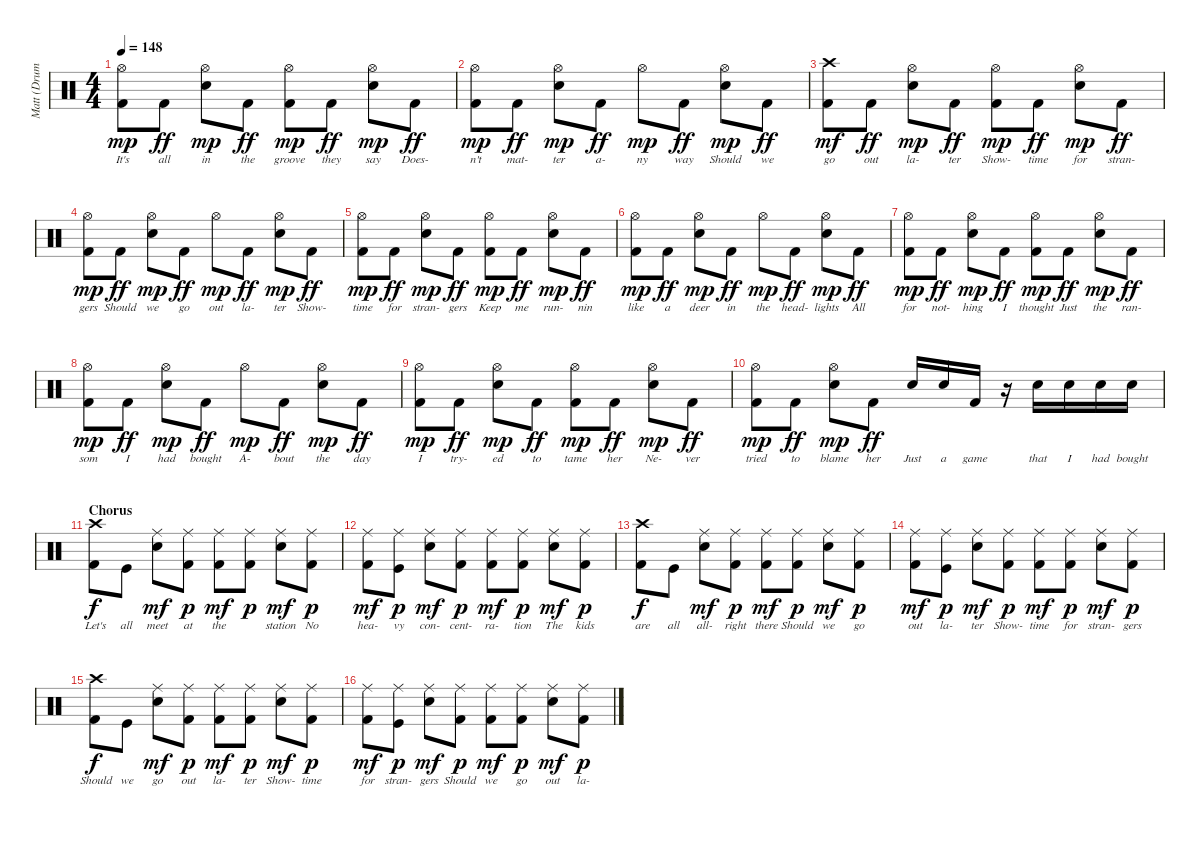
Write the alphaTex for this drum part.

\track ("Matt (Drums)" "Matt (Drum") {instrument percussion}
\staff {score}
\articulation defaults
\ts (4 4)
\tempo 148
\clef neutral
\ks c
("Kick (hit) 2" "Hi-Hat (open)").8{lyrics (0 "It's") lyrics (1 "") lyrics (2 "") lyrics (3 "") lyrics (4 "") dy mp} "Kick (hit) 2".8{lyrics (0 "all") lyrics (1 "") lyrics (2 "") lyrics (3 "") lyrics (4 "") dy ff} ("Electric Snare (hit)" "Hi-Hat (open)").8{lyrics (0 "in") lyrics (1 "") lyrics (2 "") lyrics (3 "") lyrics (4 "") dy mp} "Kick (hit) 2".8{lyrics (0 "the") lyrics (1 "") lyrics (2 "") lyrics (3 "") lyrics (4 "") dy ff} ("Kick (hit) 2" "Hi-Hat (open)").8{lyrics (0 "groove") lyrics (1 "") lyrics (2 "") lyrics (3 "") lyrics (4 "") dy mp} "Kick (hit) 2".8{lyrics (0 "they") lyrics (1 "") lyrics (2 "") lyrics (3 "") lyrics (4 "") dy ff} ("Electric Snare (hit)" "Hi-Hat (open)").8{lyrics (0 "say") lyrics (1 "") lyrics (2 "") lyrics (3 "") lyrics (4 "") dy mp} "Kick (hit) 2".8{lyrics (0 "Does-") lyrics (1 "") lyrics (2 "") lyrics (3 "") lyrics (4 "") dy ff} |
("Kick (hit) 2" "Hi-Hat (open)").8{lyrics (0 "n't") lyrics (1 "") lyrics (2 "") lyrics (3 "") lyrics (4 "") dy mp} "Kick (hit) 2".8{lyrics (0 "mat-") lyrics (1 "") lyrics (2 "") lyrics (3 "") lyrics (4 "") dy ff} ("Electric Snare (hit)" "Hi-Hat (open)").8{lyrics (0 "ter") lyrics (1 "") lyrics (2 "") lyrics (3 "") lyrics (4 "") dy mp} "Kick (hit) 2".8{lyrics (0 "a-") lyrics (1 "") lyrics (2 "") lyrics (3 "") lyrics (4 "") dy ff} "Hi-Hat (open)".8{lyrics (0 "ny") lyrics (1 "") lyrics (2 "") lyrics (3 "") lyrics (4 "") dy mp} "Kick (hit) 2".8{lyrics (0 "way") lyrics (1 "") lyrics (2 "") lyrics (3 "") lyrics (4 "") dy ff} ("Electric Snare (hit)" "Hi-Hat (open)").8{lyrics (0 "Should") lyrics (1 "") lyrics (2 "") lyrics (3 "") lyrics (4 "") dy mp} "Kick (hit) 2".8{lyrics (0 "we") lyrics (1 "") lyrics (2 "") lyrics (3 "") lyrics (4 "") dy ff} |
("Kick (hit) 2" "Crash high (hit)").8{lyrics (0 "go") lyrics (1 "") lyrics (2 "") lyrics (3 "") lyrics (4 "") dy mf} "Kick (hit) 2".8{lyrics (0 "out") lyrics (1 "") lyrics (2 "") lyrics (3 "") lyrics (4 "") dy ff} ("Electric Snare (hit)" "Hi-Hat (open)").8{lyrics (0 "la-") lyrics (1 "") lyrics (2 "") lyrics (3 "") lyrics (4 "") dy mp} "Kick (hit) 2".8{lyrics (0 "ter") lyrics (1 "") lyrics (2 "") lyrics (3 "") lyrics (4 "") dy ff} ("Kick (hit) 2" "Hi-Hat (open)").8{lyrics (0 "Show-") lyrics (1 "") lyrics (2 "") lyrics (3 "") lyrics (4 "") dy mp} "Kick (hit) 2".8{lyrics (0 "time") lyrics (1 "") lyrics (2 "") lyrics (3 "") lyrics (4 "") dy ff} ("Electric Snare (hit)" "Hi-Hat (open)").8{lyrics (0 "for") lyrics (1 "") lyrics (2 "") lyrics (3 "") lyrics (4 "") dy mp} "Kick (hit) 2".8{lyrics (0 "stran-") lyrics (1 "") lyrics (2 "") lyrics (3 "") lyrics (4 "") dy ff} |
("Kick (hit) 2" "Hi-Hat (open)").8{lyrics (0 "gers") lyrics (1 "") lyrics (2 "") lyrics (3 "") lyrics (4 "") dy mp} "Kick (hit) 2".8{lyrics (0 "Should") lyrics (1 "") lyrics (2 "") lyrics (3 "") lyrics (4 "") dy ff} ("Electric Snare (hit)" "Hi-Hat (open)").8{lyrics (0 "we") lyrics (1 "") lyrics (2 "") lyrics (3 "") lyrics (4 "") dy mp} "Kick (hit) 2".8{lyrics (0 "go") lyrics (1 "") lyrics (2 "") lyrics (3 "") lyrics (4 "") dy ff} "Hi-Hat (open)".8{lyrics (0 "out") lyrics (1 "") lyrics (2 "") lyrics (3 "") lyrics (4 "") dy mp} "Kick (hit) 2".8{lyrics (0 "la-") lyrics (1 "") lyrics (2 "") lyrics (3 "") lyrics (4 "") dy ff} ("Electric Snare (hit)" "Hi-Hat (open)").8{lyrics (0 "ter") lyrics (1 "") lyrics (2 "") lyrics (3 "") lyrics (4 "") dy mp} "Kick (hit) 2".8{lyrics (0 "Show-") lyrics (1 "") lyrics (2 "") lyrics (3 "") lyrics (4 "") dy ff} |
("Kick (hit) 2" "Hi-Hat (open)").8{lyrics (0 "time") lyrics (1 "") lyrics (2 "") lyrics (3 "") lyrics (4 "") dy mp} "Kick (hit) 2".8{lyrics (0 "for") lyrics (1 "") lyrics (2 "") lyrics (3 "") lyrics (4 "") dy ff} ("Electric Snare (hit)" "Hi-Hat (open)").8{lyrics (0 "stran-") lyrics (1 "") lyrics (2 "") lyrics (3 "") lyrics (4 "") dy mp} "Kick (hit) 2".8{lyrics (0 "gers") lyrics (1 "") lyrics (2 "") lyrics (3 "") lyrics (4 "") dy ff} ("Kick (hit) 2" "Hi-Hat (open)").8{lyrics (0 "Keep") lyrics (1 "") lyrics (2 "") lyrics (3 "") lyrics (4 "") dy mp} "Kick (hit) 2".8{lyrics (0 "me") lyrics (1 "") lyrics (2 "") lyrics (3 "") lyrics (4 "") dy ff} ("Electric Snare (hit)" "Hi-Hat (open)").8{lyrics (0 "run-") lyrics (1 "") lyrics (2 "") lyrics (3 "") lyrics (4 "") dy mp} "Kick (hit) 2".8{lyrics (0 "nin") lyrics (1 "") lyrics (2 "") lyrics (3 "") lyrics (4 "") dy ff} |
("Kick (hit) 2" "Hi-Hat (open)").8{lyrics (0 "like") lyrics (1 "") lyrics (2 "") lyrics (3 "") lyrics (4 "") dy mp} "Kick (hit) 2".8{lyrics (0 "a") lyrics (1 "") lyrics (2 "") lyrics (3 "") lyrics (4 "") dy ff} ("Electric Snare (hit)" "Hi-Hat (open)").8{lyrics (0 "deer") lyrics (1 "") lyrics (2 "") lyrics (3 "") lyrics (4 "") dy mp} "Kick (hit) 2".8{lyrics (0 "in") lyrics (1 "") lyrics (2 "") lyrics (3 "") lyrics (4 "") dy ff} "Hi-Hat (open)".8{lyrics (0 "the") lyrics (1 "") lyrics (2 "") lyrics (3 "") lyrics (4 "") dy mp} "Kick (hit) 2".8{lyrics (0 "head-") lyrics (1 "") lyrics (2 "") lyrics (3 "") lyrics (4 "") dy ff} ("Electric Snare (hit)" "Hi-Hat (open)").8{lyrics (0 "lights") lyrics (1 "") lyrics (2 "") lyrics (3 "") lyrics (4 "") dy mp} "Kick (hit) 2".8{lyrics (0 "All") lyrics (1 "") lyrics (2 "") lyrics (3 "") lyrics (4 "") dy ff} |
("Kick (hit) 2" "Hi-Hat (open)").8{lyrics (0 "for") lyrics (1 "") lyrics (2 "") lyrics (3 "") lyrics (4 "") dy mp} "Kick (hit) 2".8{lyrics (0 "not-") lyrics (1 "") lyrics (2 "") lyrics (3 "") lyrics (4 "") dy ff} ("Electric Snare (hit)" "Hi-Hat (open)").8{lyrics (0 "hing") lyrics (1 "") lyrics (2 "") lyrics (3 "") lyrics (4 "") dy mp} "Kick (hit) 2".8{lyrics (0 "I") lyrics (1 "") lyrics (2 "") lyrics (3 "") lyrics (4 "") dy ff} ("Kick (hit) 2" "Hi-Hat (open)").8{lyrics (0 "thought") lyrics (1 "") lyrics (2 "") lyrics (3 "") lyrics (4 "") dy mp} "Kick (hit) 2".8{lyrics (0 "Just") lyrics (1 "") lyrics (2 "") lyrics (3 "") lyrics (4 "") dy ff} ("Electric Snare (hit)" "Hi-Hat (open)").8{lyrics (0 "the") lyrics (1 "") lyrics (2 "") lyrics (3 "") lyrics (4 "") dy mp} "Kick (hit) 2".8{lyrics (0 "ran-") lyrics (1 "") lyrics (2 "") lyrics (3 "") lyrics (4 "") dy ff} |
("Kick (hit) 2" "Hi-Hat (open)").8{lyrics (0 "som") lyrics (1 "") lyrics (2 "") lyrics (3 "") lyrics (4 "") dy mp} "Kick (hit) 2".8{lyrics (0 "I") lyrics (1 "") lyrics (2 "") lyrics (3 "") lyrics (4 "") dy ff} ("Electric Snare (hit)" "Hi-Hat (open)").8{lyrics (0 "had") lyrics (1 "") lyrics (2 "") lyrics (3 "") lyrics (4 "") dy mp} "Kick (hit) 2".8{lyrics (0 "bought") lyrics (1 "") lyrics (2 "") lyrics (3 "") lyrics (4 "") dy ff} "Hi-Hat (open)".8{lyrics (0 "A-") lyrics (1 "") lyrics (2 "") lyrics (3 "") lyrics (4 "") dy mp} "Kick (hit) 2".8{lyrics (0 "bout") lyrics (1 "") lyrics (2 "") lyrics (3 "") lyrics (4 "") dy ff} ("Electric Snare (hit)" "Hi-Hat (open)").8{lyrics (0 "the") lyrics (1 "") lyrics (2 "") lyrics (3 "") lyrics (4 "") dy mp} "Kick (hit) 2".8{lyrics (0 "day") lyrics (1 "") lyrics (2 "") lyrics (3 "") lyrics (4 "") dy ff} |
("Kick (hit) 2" "Hi-Hat (open)").8{lyrics (0 "I") lyrics (1 "") lyrics (2 "") lyrics (3 "") lyrics (4 "") dy mp} "Kick (hit) 2".8{lyrics (0 "try-") lyrics (1 "") lyrics (2 "") lyrics (3 "") lyrics (4 "") dy ff} ("Electric Snare (hit)" "Hi-Hat (open)").8{lyrics (0 "ed") lyrics (1 "") lyrics (2 "") lyrics (3 "") lyrics (4 "") dy mp} "Kick (hit) 2".8{lyrics (0 "to") lyrics (1 "") lyrics (2 "") lyrics (3 "") lyrics (4 "") dy ff} ("Kick (hit) 2" "Hi-Hat (open)").8{lyrics (0 "tame") lyrics (1 "") lyrics (2 "") lyrics (3 "") lyrics (4 "") dy mp} "Kick (hit) 2".8{lyrics (0 "her") lyrics (1 "") lyrics (2 "") lyrics (3 "") lyrics (4 "") dy ff} ("Electric Snare (hit)" "Hi-Hat (open)").8{lyrics (0 "Ne-") lyrics (1 "") lyrics (2 "") lyrics (3 "") lyrics (4 "") dy mp} "Kick (hit) 2".8{lyrics (0 "ver") lyrics (1 "") lyrics (2 "") lyrics (3 "") lyrics (4 "") dy ff} |
("Kick (hit) 2" "Hi-Hat (open)").8{lyrics (0 "tried") lyrics (1 "") lyrics (2 "") lyrics (3 "") lyrics (4 "") dy mp} "Kick (hit) 2".8{lyrics (0 "to") lyrics (1 "") lyrics (2 "") lyrics (3 "") lyrics (4 "") dy ff} ("Electric Snare (hit)" "Hi-Hat (open)").8{lyrics (0 "blame") lyrics (1 "") lyrics (2 "") lyrics (3 "") lyrics (4 "") dy mp} "Kick (hit) 2".8{lyrics (0 "her") lyrics (1 "") lyrics (2 "") lyrics (3 "") lyrics (4 "") dy ff} "Electric Snare (hit)".16{lyrics (0 "Just") lyrics (1 "") lyrics (2 "") lyrics (3 "") lyrics (4 "")} "Electric Snare (hit)".16{lyrics (0 "a") lyrics (1 "") lyrics (2 "") lyrics (3 "") lyrics (4 "")} "Kick (hit) 2".16{lyrics (0 "game") lyrics (1 "") lyrics (2 "") lyrics (3 "") lyrics (4 "")} r.16 "Electric Snare (hit)".16{lyrics (0 "that") lyrics (1 "") lyrics (2 "") lyrics (3 "") lyrics (4 "")} "Electric Snare (hit)".16{lyrics (0 "I") lyrics (1 "") lyrics (2 "") lyrics (3 "") lyrics (4 "")} "Electric Snare (hit)".16{lyrics (0 "had") lyrics (1 "") lyrics (2 "") lyrics (3 "") lyrics (4 "")} "Electric Snare (hit)".16{lyrics (0 "bought") lyrics (1 "") lyrics (2 "") lyrics (3 "") lyrics (4 "")} |
\section ("" "Chorus")
("Kick (hit) 2" "Crash high (hit)").8{lyrics (0 "Let's") lyrics (1 "") lyrics (2 "") lyrics (3 "") lyrics (4 "") dy f} "Kick (hit)".8{lyrics (0 "all") lyrics (1 "") lyrics (2 "") lyrics (3 "") lyrics (4 "")} ("Electric Snare (hit)" "Ride (middle)").8{lyrics (0 "meet") lyrics (1 "") lyrics (2 "") lyrics (3 "") lyrics (4 "") dy mf} ("Kick (hit) 2" "Ride (middle)").8{lyrics (0 "at") lyrics (1 "") lyrics (2 "") lyrics (3 "") lyrics (4 "") dy p} ("Kick (hit) 2" "Ride (middle)").8{lyrics (0 "the") lyrics (1 "") lyrics (2 "") lyrics (3 "") lyrics (4 "") dy mf} ("Kick (hit) 2" "Ride (middle)").8{lyrics (0 "") lyrics (1 "") lyrics (2 "") lyrics (3 "") lyrics (4 "") dy p} ("Electric Snare (hit)" "Ride (middle)").8{lyrics (0 "station") lyrics (1 "") lyrics (2 "") lyrics (3 "") lyrics (4 "") dy mf} ("Kick (hit) 2" "Ride (middle)").8{lyrics (0 "No") lyrics (1 "") lyrics (2 "") lyrics (3 "") lyrics (4 "") dy p} |
("Kick (hit) 2" "Ride (middle)").8{lyrics (0 "hea-") lyrics (1 "") lyrics (2 "") lyrics (3 "") lyrics (4 "") dy mf} ("Kick (hit)" "Ride (middle)").8{lyrics (0 "vy") lyrics (1 "") lyrics (2 "") lyrics (3 "") lyrics (4 "") dy p} ("Electric Snare (hit)" "Ride (middle)").8{lyrics (0 "con-") lyrics (1 "") lyrics (2 "") lyrics (3 "") lyrics (4 "") dy mf} ("Kick (hit) 2" "Ride (middle)").8{lyrics (0 "cent-") lyrics (1 "") lyrics (2 "") lyrics (3 "") lyrics (4 "") dy p} ("Kick (hit) 2" "Ride (middle)").8{lyrics (0 "ra-") lyrics (1 "") lyrics (2 "") lyrics (3 "") lyrics (4 "") dy mf} ("Kick (hit) 2" "Ride (middle)").8{lyrics (0 "tion") lyrics (1 "") lyrics (2 "") lyrics (3 "") lyrics (4 "") dy p} ("Electric Snare (hit)" "Ride (middle)").8{lyrics (0 "The") lyrics (1 "") lyrics (2 "") lyrics (3 "") lyrics (4 "") dy mf} ("Kick (hit) 2" "Ride (middle)").8{lyrics (0 "kids") lyrics (1 "") lyrics (2 "") lyrics (3 "") lyrics (4 "") dy p} |
("Kick (hit) 2" "Crash high (hit)").8{lyrics (0 "are") lyrics (1 "") lyrics (2 "") lyrics (3 "") lyrics (4 "") dy f} "Kick (hit)".8{lyrics (0 "all") lyrics (1 "") lyrics (2 "") lyrics (3 "") lyrics (4 "")} ("Electric Snare (hit)" "Ride (middle)").8{lyrics (0 "all-") lyrics (1 "") lyrics (2 "") lyrics (3 "") lyrics (4 "") dy mf} ("Kick (hit) 2" "Ride (middle)").8{lyrics (0 "right") lyrics (1 "") lyrics (2 "") lyrics (3 "") lyrics (4 "") dy p} ("Kick (hit) 2" "Ride (middle)").8{lyrics (0 "there") lyrics (1 "") lyrics (2 "") lyrics (3 "") lyrics (4 "") dy mf} ("Kick (hit) 2" "Ride (middle)").8{lyrics (0 "Should") lyrics (1 "") lyrics (2 "") lyrics (3 "") lyrics (4 "") dy p} ("Electric Snare (hit)" "Ride (middle)").8{lyrics (0 "we") lyrics (1 "") lyrics (2 "") lyrics (3 "") lyrics (4 "") dy mf} ("Kick (hit) 2" "Ride (middle)").8{lyrics (0 "go") lyrics (1 "") lyrics (2 "") lyrics (3 "") lyrics (4 "") dy p} |
("Kick (hit) 2" "Ride (middle)").8{lyrics (0 "out") lyrics (1 "") lyrics (2 "") lyrics (3 "") lyrics (4 "") dy mf} ("Kick (hit)" "Ride (middle)").8{lyrics (0 "la-") lyrics (1 "") lyrics (2 "") lyrics (3 "") lyrics (4 "") dy p} ("Electric Snare (hit)" "Ride (middle)").8{lyrics (0 "ter") lyrics (1 "") lyrics (2 "") lyrics (3 "") lyrics (4 "") dy mf} ("Kick (hit) 2" "Ride (middle)").8{lyrics (0 "Show-") lyrics (1 "") lyrics (2 "") lyrics (3 "") lyrics (4 "") dy p} ("Kick (hit) 2" "Ride (middle)").8{lyrics (0 "time") lyrics (1 "") lyrics (2 "") lyrics (3 "") lyrics (4 "") dy mf} ("Kick (hit) 2" "Ride (middle)").8{lyrics (0 "for") lyrics (1 "") lyrics (2 "") lyrics (3 "") lyrics (4 "") dy p} ("Electric Snare (hit)" "Ride (middle)").8{lyrics (0 "stran-") lyrics (1 "") lyrics (2 "") lyrics (3 "") lyrics (4 "") dy mf} ("Kick (hit) 2" "Ride (middle)").8{lyrics (0 "gers") lyrics (1 "") lyrics (2 "") lyrics (3 "") lyrics (4 "") dy p} |
("Kick (hit) 2" "Crash high (hit)").8{lyrics (0 "Should") lyrics (1 "") lyrics (2 "") lyrics (3 "") lyrics (4 "") dy f} "Kick (hit)".8{lyrics (0 "we") lyrics (1 "") lyrics (2 "") lyrics (3 "") lyrics (4 "")} ("Electric Snare (hit)" "Ride (middle)").8{lyrics (0 "go") lyrics (1 "") lyrics (2 "") lyrics (3 "") lyrics (4 "") dy mf} ("Kick (hit) 2" "Ride (middle)").8{lyrics (0 "out") lyrics (1 "") lyrics (2 "") lyrics (3 "") lyrics (4 "") dy p} ("Kick (hit) 2" "Ride (middle)").8{lyrics (0 "la-") lyrics (1 "") lyrics (2 "") lyrics (3 "") lyrics (4 "") dy mf} ("Kick (hit) 2" "Ride (middle)").8{lyrics (0 "ter") lyrics (1 "") lyrics (2 "") lyrics (3 "") lyrics (4 "") dy p} ("Electric Snare (hit)" "Ride (middle)").8{lyrics (0 "Show-") lyrics (1 "") lyrics (2 "") lyrics (3 "") lyrics (4 "") dy mf} ("Kick (hit) 2" "Ride (middle)").8{lyrics (0 "time") lyrics (1 "") lyrics (2 "") lyrics (3 "") lyrics (4 "") dy p} |
("Kick (hit) 2" "Ride (middle)").8{lyrics (0 "for") lyrics (1 "") lyrics (2 "") lyrics (3 "") lyrics (4 "") dy mf} ("Kick (hit)" "Ride (middle)").8{lyrics (0 "stran-") lyrics (1 "") lyrics (2 "") lyrics (3 "") lyrics (4 "") dy p} ("Electric Snare (hit)" "Ride (middle)").8{lyrics (0 "gers") lyrics (1 "") lyrics (2 "") lyrics (3 "") lyrics (4 "") dy mf} ("Kick (hit) 2" "Ride (middle)").8{lyrics (0 "Should") lyrics (1 "") lyrics (2 "") lyrics (3 "") lyrics (4 "") dy p} ("Kick (hit) 2" "Ride (middle)").8{lyrics (0 "we") lyrics (1 "") lyrics (2 "") lyrics (3 "") lyrics (4 "") dy mf} ("Kick (hit) 2" "Ride (middle)").8{lyrics (0 "go") lyrics (1 "") lyrics (2 "") lyrics (3 "") lyrics (4 "") dy p} ("Electric Snare (hit)" "Ride (middle)").8{lyrics (0 "out") lyrics (1 "") lyrics (2 "") lyrics (3 "") lyrics (4 "") dy mf} ("Kick (hit) 2" "Ride (middle)").8{lyrics (0 "la-") lyrics (1 "") lyrics (2 "") lyrics (3 "") lyrics (4 "") dy p}
